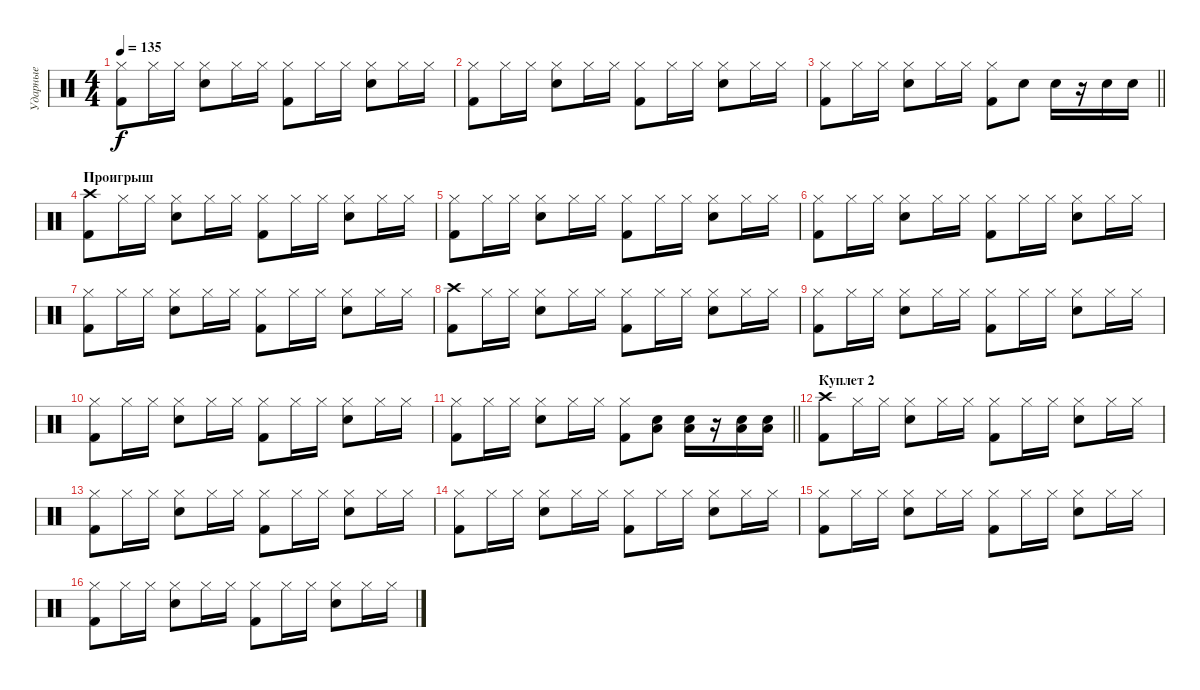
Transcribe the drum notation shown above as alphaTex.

\track ("Ударные" "Ударные") {instrument percussion}
\staff {score}
\articulation defaults
\ts (4 4)
\tempo 135
\clef neutral
\ks c
("Hi-Hat (closed)" "Kick (hit) 2").8{dy f} "Hi-Hat (closed)".16 "Hi-Hat (closed)".16 ("Hi-Hat (closed)" "Electric Snare (hit)").8 "Hi-Hat (closed)".16 "Hi-Hat (closed)".16 ("Hi-Hat (closed)" "Kick (hit) 2").8 "Hi-Hat (closed)".16 "Hi-Hat (closed)".16 ("Hi-Hat (closed)" "Electric Snare (hit)").8 "Hi-Hat (closed)".16 "Hi-Hat (closed)".16 |
("Hi-Hat (closed)" "Kick (hit) 2").8 "Hi-Hat (closed)".16 "Hi-Hat (closed)".16 ("Hi-Hat (closed)" "Electric Snare (hit)").8 "Hi-Hat (closed)".16 "Hi-Hat (closed)".16 ("Hi-Hat (closed)" "Kick (hit) 2").8 "Hi-Hat (closed)".16 "Hi-Hat (closed)".16 ("Hi-Hat (closed)" "Electric Snare (hit)").8 "Hi-Hat (closed)".16 "Hi-Hat (closed)".16 |
\barLineRight lightlight
("Hi-Hat (closed)" "Kick (hit) 2").8 "Hi-Hat (closed)".16 "Hi-Hat (closed)".16 ("Hi-Hat (closed)" "Electric Snare (hit)").8 "Hi-Hat (closed)".16 "Hi-Hat (closed)".16 ("Hi-Hat (closed)" "Kick (hit) 2").8 "Electric Snare (hit)".8 "Electric Snare (hit)".16 r.16 "Electric Snare (hit)".16 "Electric Snare (hit)".16 |
\section ("" "Проигрыш")
("Crash high (hit)" "Kick (hit) 2").8 "Hi-Hat (closed)".16 "Hi-Hat (closed)".16 ("Hi-Hat (closed)" "Electric Snare (hit)").8 "Hi-Hat (closed)".16 "Hi-Hat (closed)".16 ("Hi-Hat (closed)" "Kick (hit) 2").8 "Hi-Hat (closed)".16 "Hi-Hat (closed)".16 ("Hi-Hat (closed)" "Electric Snare (hit)").8 "Hi-Hat (closed)".16 "Hi-Hat (closed)".16 |
("Hi-Hat (closed)" "Kick (hit) 2").8 "Hi-Hat (closed)".16 "Hi-Hat (closed)".16 ("Hi-Hat (closed)" "Electric Snare (hit)").8 "Hi-Hat (closed)".16 "Hi-Hat (closed)".16 ("Hi-Hat (closed)" "Kick (hit) 2").8 "Hi-Hat (closed)".16 "Hi-Hat (closed)".16 ("Hi-Hat (closed)" "Electric Snare (hit)").8 "Hi-Hat (closed)".16 "Hi-Hat (closed)".16 |
("Hi-Hat (closed)" "Kick (hit) 2").8 "Hi-Hat (closed)".16 "Hi-Hat (closed)".16 ("Hi-Hat (closed)" "Electric Snare (hit)").8 "Hi-Hat (closed)".16 "Hi-Hat (closed)".16 ("Hi-Hat (closed)" "Kick (hit) 2").8 "Hi-Hat (closed)".16 "Hi-Hat (closed)".16 ("Hi-Hat (closed)" "Electric Snare (hit)").8 "Hi-Hat (closed)".16 "Hi-Hat (closed)".16 |
("Hi-Hat (closed)" "Kick (hit) 2").8 "Hi-Hat (closed)".16 "Hi-Hat (closed)".16 ("Hi-Hat (closed)" "Electric Snare (hit)").8 "Hi-Hat (closed)".16 "Hi-Hat (closed)".16 ("Hi-Hat (closed)" "Kick (hit) 2").8 "Hi-Hat (closed)".16 "Hi-Hat (closed)".16 ("Hi-Hat (closed)" "Electric Snare (hit)").8 "Hi-Hat (closed)".16 "Hi-Hat (closed)".16 |
("Crash high (hit)" "Kick (hit) 2").8 "Hi-Hat (closed)".16 "Hi-Hat (closed)".16 ("Hi-Hat (closed)" "Electric Snare (hit)").8 "Hi-Hat (closed)".16 "Hi-Hat (closed)".16 ("Hi-Hat (closed)" "Kick (hit) 2").8 "Hi-Hat (closed)".16 "Hi-Hat (closed)".16 ("Hi-Hat (closed)" "Electric Snare (hit)").8 "Hi-Hat (closed)".16 "Hi-Hat (closed)".16 |
("Hi-Hat (closed)" "Kick (hit) 2").8 "Hi-Hat (closed)".16 "Hi-Hat (closed)".16 ("Hi-Hat (closed)" "Electric Snare (hit)").8 "Hi-Hat (closed)".16 "Hi-Hat (closed)".16 ("Hi-Hat (closed)" "Kick (hit) 2").8 "Hi-Hat (closed)".16 "Hi-Hat (closed)".16 ("Hi-Hat (closed)" "Electric Snare (hit)").8 "Hi-Hat (closed)".16 "Hi-Hat (closed)".16 |
("Hi-Hat (closed)" "Kick (hit) 2").8 "Hi-Hat (closed)".16 "Hi-Hat (closed)".16 ("Hi-Hat (closed)" "Electric Snare (hit)").8 "Hi-Hat (closed)".16 "Hi-Hat (closed)".16 ("Hi-Hat (closed)" "Kick (hit) 2").8 "Hi-Hat (closed)".16 "Hi-Hat (closed)".16 ("Hi-Hat (closed)" "Electric Snare (hit)").8 "Hi-Hat (closed)".16 "Hi-Hat (closed)".16 |
\barLineRight lightlight
("Hi-Hat (closed)" "Kick (hit) 2").8 "Hi-Hat (closed)".16 "Hi-Hat (closed)".16 ("Hi-Hat (closed)" "Electric Snare (hit)").8 "Hi-Hat (closed)".16 "Hi-Hat (closed)".16 ("Hi-Hat (closed)" "Kick (hit) 2").8 ("Electric Snare (hit)" "Low Tom (hit)").8 ("Electric Snare (hit)" "Low Tom (hit)").16 r.16 ("Electric Snare (hit)" "Low Tom (hit)").16 ("Electric Snare (hit)" "Low Tom (hit)").16 |
\section ("" "Куплет 2")
("Crash high (hit)" "Kick (hit) 2").8 "Hi-Hat (closed)".16 "Hi-Hat (closed)".16 ("Hi-Hat (closed)" "Electric Snare (hit)").8 "Hi-Hat (closed)".16 "Hi-Hat (closed)".16 ("Hi-Hat (closed)" "Kick (hit) 2").8 "Hi-Hat (closed)".16 "Hi-Hat (closed)".16 ("Hi-Hat (closed)" "Electric Snare (hit)").8 "Hi-Hat (closed)".16 "Hi-Hat (closed)".16 |
("Hi-Hat (closed)" "Kick (hit) 2").8 "Hi-Hat (closed)".16 "Hi-Hat (closed)".16 ("Hi-Hat (closed)" "Electric Snare (hit)").8 "Hi-Hat (closed)".16 "Hi-Hat (closed)".16 ("Hi-Hat (closed)" "Kick (hit) 2").8 "Hi-Hat (closed)".16 "Hi-Hat (closed)".16 ("Hi-Hat (closed)" "Electric Snare (hit)").8 "Hi-Hat (closed)".16 "Hi-Hat (closed)".16 |
("Hi-Hat (closed)" "Kick (hit) 2").8 "Hi-Hat (closed)".16 "Hi-Hat (closed)".16 ("Hi-Hat (closed)" "Electric Snare (hit)").8 "Hi-Hat (closed)".16 "Hi-Hat (closed)".16 ("Hi-Hat (closed)" "Kick (hit) 2").8 "Hi-Hat (closed)".16 "Hi-Hat (closed)".16 ("Hi-Hat (closed)" "Electric Snare (hit)").8 "Hi-Hat (closed)".16 "Hi-Hat (closed)".16 |
("Hi-Hat (closed)" "Kick (hit) 2").8 "Hi-Hat (closed)".16 "Hi-Hat (closed)".16 ("Hi-Hat (closed)" "Electric Snare (hit)").8 "Hi-Hat (closed)".16 "Hi-Hat (closed)".16 ("Hi-Hat (closed)" "Kick (hit) 2").8 "Hi-Hat (closed)".16 "Hi-Hat (closed)".16 ("Hi-Hat (closed)" "Electric Snare (hit)").8 "Hi-Hat (closed)".16 "Hi-Hat (closed)".16 |
("Hi-Hat (closed)" "Kick (hit) 2").8 "Hi-Hat (closed)".16 "Hi-Hat (closed)".16 ("Hi-Hat (closed)" "Electric Snare (hit)").8 "Hi-Hat (closed)".16 "Hi-Hat (closed)".16 ("Hi-Hat (closed)" "Kick (hit) 2").8 "Hi-Hat (closed)".16 "Hi-Hat (closed)".16 ("Hi-Hat (closed)" "Electric Snare (hit)").8 "Hi-Hat (closed)".16 "Hi-Hat (closed)".16
